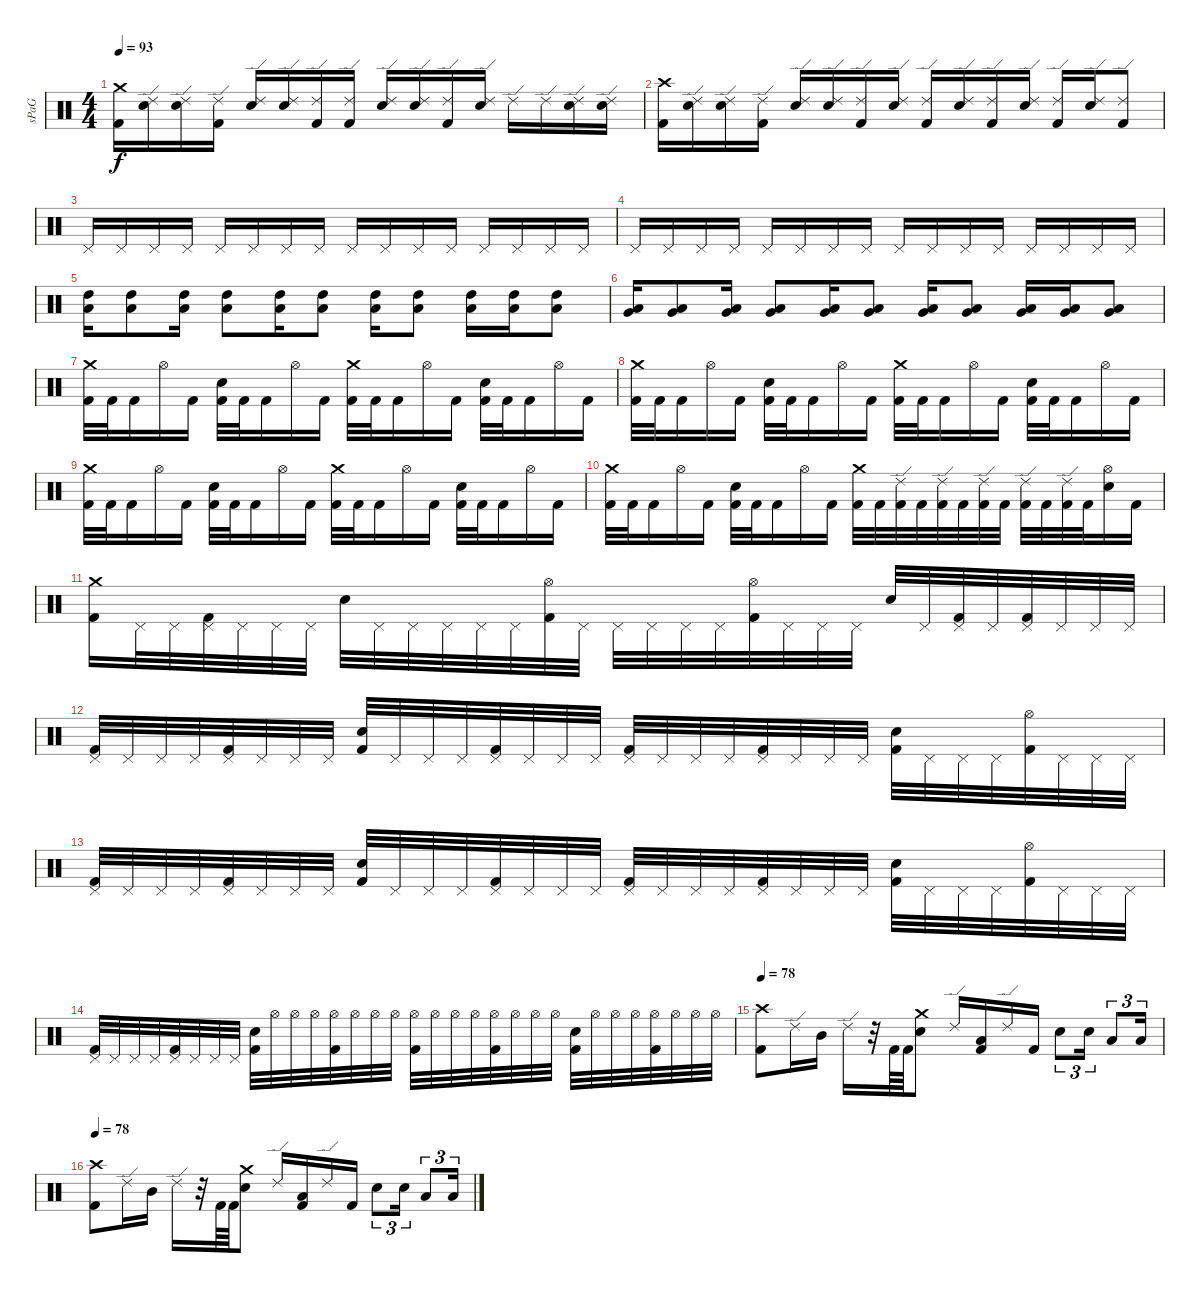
\track ("sPaG" "sPaG") {instrument percussion}
\staff {score}
\articulation defaults
\ts (4 4)
\tempo 93
\clef neutral
\ks c
("Crash medium (hit)" "Kick (hit) 2").16{dy f} ("Ride (edge) 2" "Snare (hit) 2").16 ("Ride (edge) 2" "Snare (hit) 2").16 ("Ride (edge) 2" "Kick (hit) 2").16 ("Ride (edge) 2" "Snare (hit) 2").16 ("Ride (edge) 2" "Snare (hit) 2").16 ("Ride (edge) 2" "Kick (hit) 2").16 ("Ride (edge) 2" "Kick (hit) 2").16 ("Ride (edge) 2" "Snare (hit) 2").16 ("Ride (edge) 2" "Snare (hit) 2").16 ("Ride (edge) 2" "Kick (hit) 2").16 ("Ride (edge) 2" "Snare (hit) 2").16 "Ride (edge) 2".16 "Ride (edge) 2".16 ("Ride (edge) 2" "Snare (hit) 2").16 ("Ride (edge) 2" "Snare (hit) 2").16 |
("Crash high (hit)" "Kick (hit) 2").16 ("Ride (edge) 2" "Snare (hit) 2").16 ("Ride (edge) 2" "Snare (hit) 2").16 ("Ride (edge) 2" "Kick (hit) 2").16 ("Ride (edge) 2" "Snare (hit) 2").16 ("Ride (edge) 2" "Snare (hit) 2").16 ("Ride (edge) 2" "Kick (hit) 2").16 ("Ride (edge) 2" "Snare (hit) 2").16 ("Ride (edge) 2" "Kick (hit) 2").16 ("Ride (edge) 2" "Snare (hit) 2").16 ("Ride (edge) 2" "Kick (hit) 2").16 ("Ride (edge) 2" "Snare (hit) 2").16 ("Ride (edge) 2" "Kick (hit) 2").16 ("Ride (edge) 2" "Snare (hit) 2").16 ("Ride (edge) 2" "Kick (hit) 2").8 |
"Pedal Hi-Hat (hit)".16 "Pedal Hi-Hat (hit)".16 "Pedal Hi-Hat (hit)".16 "Pedal Hi-Hat (hit)".16 "Pedal Hi-Hat (hit)".16 "Pedal Hi-Hat (hit)".16 "Pedal Hi-Hat (hit)".16 "Pedal Hi-Hat (hit)".16 "Pedal Hi-Hat (hit)".16 "Pedal Hi-Hat (hit)".16 "Pedal Hi-Hat (hit)".16 "Pedal Hi-Hat (hit)".16 "Pedal Hi-Hat (hit)".16 "Pedal Hi-Hat (hit)".16 "Pedal Hi-Hat (hit)".16 "Pedal Hi-Hat (hit)".16 |
"Pedal Hi-Hat (hit)".16 "Pedal Hi-Hat (hit)".16 "Pedal Hi-Hat (hit)".16 "Pedal Hi-Hat (hit)".16 "Pedal Hi-Hat (hit)".16 "Pedal Hi-Hat (hit)".16 "Pedal Hi-Hat (hit)".16 "Pedal Hi-Hat (hit)".16 "Pedal Hi-Hat (hit)".16 "Pedal Hi-Hat (hit)".16 "Pedal Hi-Hat (hit)".16 "Pedal Hi-Hat (hit)".16 "Pedal Hi-Hat (hit)".16 "Pedal Hi-Hat (hit)".16 "Pedal Hi-Hat (hit)".16 "Pedal Hi-Hat (hit)".16 |
("High Tom (hit)" "Low Tom (hit)").16 ("High Tom (hit)" "Low Tom (hit)").8 ("High Tom (hit)" "Low Tom (hit)").16 ("High Tom (hit)" "Low Tom (hit)").8 ("High Tom (hit)" "Low Tom (hit)").16 ("High Tom (hit)" "Low Tom (hit)").8 ("High Tom (hit)" "Low Tom (hit)").16 ("High Tom (hit)" "Low Tom (hit)").8 ("High Tom (hit)" "Low Tom (hit)").16 ("High Tom (hit)" "Low Tom (hit)").16 ("High Tom (hit)" "Low Tom (hit)").8 |
("Low Tom (hit)" "Very Low Tom (hit)").16 ("Low Tom (hit)" "Very Low Tom (hit)").8 ("Low Tom (hit)" "Very Low Tom (hit)").16 ("Low Tom (hit)" "Very Low Tom (hit)").8 ("Low Tom (hit)" "Very Low Tom (hit)").16 ("Low Tom (hit)" "Very Low Tom (hit)").8 ("Low Tom (hit)" "Very Low Tom (hit)").16 ("Low Tom (hit)" "Very Low Tom (hit)").8 ("Low Tom (hit)" "Very Low Tom (hit)").16 ("Low Tom (hit)" "Very Low Tom (hit)").16 ("Low Tom (hit)" "Very Low Tom (hit)").8 |
("Crash medium (hit)" "Kick (hit) 2").32 "Kick (hit) 2".32 "Kick (hit) 2".16 "Hi-Hat (open)".16 "Kick (hit) 2".16 ("Snare (hit) 2" "Kick (hit) 2").32 "Kick (hit) 2".32 "Kick (hit) 2".16 "Hi-Hat (open)".16 "Kick (hit) 2".16 ("Crash medium (hit)" "Kick (hit) 2").32 "Kick (hit) 2".32 "Kick (hit) 2".16 "Hi-Hat (open)".16 "Kick (hit) 2".16 ("Snare (hit) 2" "Kick (hit) 2").32 "Kick (hit) 2".32 "Kick (hit) 2".16 "Hi-Hat (open)".16 "Kick (hit) 2".16 |
("Crash medium (hit)" "Kick (hit) 2").32 "Kick (hit) 2".32 "Kick (hit) 2".16 "Hi-Hat (open)".16 "Kick (hit) 2".16 ("Snare (hit) 2" "Kick (hit) 2").32 "Kick (hit) 2".32 "Kick (hit) 2".16 "Hi-Hat (open)".16 "Kick (hit) 2".16 ("Crash medium (hit)" "Kick (hit) 2").32 "Kick (hit) 2".32 "Kick (hit) 2".16 "Hi-Hat (open)".16 "Kick (hit) 2".16 ("Snare (hit) 2" "Kick (hit) 2").32 "Kick (hit) 2".32 "Kick (hit) 2".16 "Hi-Hat (open)".16 "Kick (hit) 2".16 |
("Crash medium (hit)" "Kick (hit) 2").32 "Kick (hit) 2".32 "Kick (hit) 2".16 "Hi-Hat (open)".16 "Kick (hit) 2".16 ("Snare (hit) 2" "Kick (hit) 2").32 "Kick (hit) 2".32 "Kick (hit) 2".16 "Hi-Hat (open)".16 "Kick (hit) 2".16 ("Crash medium (hit)" "Kick (hit) 2").32 "Kick (hit) 2".32 "Kick (hit) 2".16 "Hi-Hat (open)".16 "Kick (hit) 2".16 ("Snare (hit) 2" "Kick (hit) 2").32 "Kick (hit) 2".32 "Kick (hit) 2".16 "Hi-Hat (open)".16 "Kick (hit) 2".16 |
("Crash medium (hit)" "Kick (hit) 2").32 "Kick (hit) 2".32 "Kick (hit) 2".16 "Hi-Hat (open)".16 "Kick (hit) 2".16 ("Snare (hit) 2" "Kick (hit) 2").32 "Kick (hit) 2".32 "Kick (hit) 2".16 "Hi-Hat (open)".16 "Kick (hit) 2".16 ("Crash medium (hit)" "Kick (hit) 2").32 "Kick (hit) 2".32 ("Ride (edge) 2" "Kick (hit) 2").32 "Kick (hit) 2".32 ("Ride (edge) 2" "Kick (hit) 2").32 "Kick (hit) 2".32 ("Ride (edge) 2" "Kick (hit) 2").32 "Kick (hit) 2".32 ("Ride (edge) 2" "Kick (hit) 2").32 "Kick (hit) 2".32 ("Ride (edge) 2" "Kick (hit) 2").32 "Kick (hit) 2".32 ("Hi-Hat (open)" "Snare (hit) 2").16 "Kick (hit) 2".16 |
("Crash medium (hit)" "Kick (hit) 2").16 "Pedal Hi-Hat (hit)".32 "Pedal Hi-Hat (hit)".32 ("Pedal Hi-Hat (hit)" "Kick (hit) 2").32 "Pedal Hi-Hat (hit)".32 "Pedal Hi-Hat (hit)".32 "Pedal Hi-Hat (hit)".32 "Snare (hit) 2".32 "Pedal Hi-Hat (hit)".32 "Pedal Hi-Hat (hit)".32 "Pedal Hi-Hat (hit)".32 "Pedal Hi-Hat (hit)".32 "Pedal Hi-Hat (hit)".32 ("Hi-Hat (open)" "Kick (hit) 2").32 "Pedal Hi-Hat (hit)".32 "Pedal Hi-Hat (hit)".32 "Pedal Hi-Hat (hit)".32 "Pedal Hi-Hat (hit)".32 "Pedal Hi-Hat (hit)".32 ("Hi-Hat (open)" "Kick (hit) 2").32 "Pedal Hi-Hat (hit)".32 "Pedal Hi-Hat (hit)".32 "Pedal Hi-Hat (hit)".32 "Snare (hit) 2".32 "Pedal Hi-Hat (hit)".32 ("Pedal Hi-Hat (hit)" "Kick (hit) 2").32 "Pedal Hi-Hat (hit)".32 ("Pedal Hi-Hat (hit)" "Kick (hit) 2").32 "Pedal Hi-Hat (hit)".32 "Pedal Hi-Hat (hit)".32 "Pedal Hi-Hat (hit)".32 |
("Pedal Hi-Hat (hit)" "Kick (hit) 2").32 "Pedal Hi-Hat (hit)".32 "Pedal Hi-Hat (hit)".32 "Pedal Hi-Hat (hit)".32 ("Pedal Hi-Hat (hit)" "Kick (hit) 2").32 "Pedal Hi-Hat (hit)".32 "Pedal Hi-Hat (hit)".32 "Pedal Hi-Hat (hit)".32 ("Snare (hit) 2" "Kick (hit) 2").32 "Pedal Hi-Hat (hit)".32 "Pedal Hi-Hat (hit)".32 "Pedal Hi-Hat (hit)".32 ("Pedal Hi-Hat (hit)" "Kick (hit) 2").32 "Pedal Hi-Hat (hit)".32 "Pedal Hi-Hat (hit)".32 "Pedal Hi-Hat (hit)".32 ("Pedal Hi-Hat (hit)" "Kick (hit) 2").32 "Pedal Hi-Hat (hit)".32 "Pedal Hi-Hat (hit)".32 "Pedal Hi-Hat (hit)".32 ("Pedal Hi-Hat (hit)" "Kick (hit) 2").32 "Pedal Hi-Hat (hit)".32 "Pedal Hi-Hat (hit)".32 "Pedal Hi-Hat (hit)".32 ("Snare (hit) 2" "Kick (hit) 2").32 "Pedal Hi-Hat (hit)".32 "Pedal Hi-Hat (hit)".32 "Pedal Hi-Hat (hit)".32 ("Hi-Hat (open)" "Kick (hit) 2").32 "Pedal Hi-Hat (hit)".32 "Pedal Hi-Hat (hit)".32 "Pedal Hi-Hat (hit)".32 |
("Pedal Hi-Hat (hit)" "Kick (hit) 2").32 "Pedal Hi-Hat (hit)".32 "Pedal Hi-Hat (hit)".32 "Pedal Hi-Hat (hit)".32 ("Pedal Hi-Hat (hit)" "Kick (hit) 2").32 "Pedal Hi-Hat (hit)".32 "Pedal Hi-Hat (hit)".32 "Pedal Hi-Hat (hit)".32 ("Snare (hit) 2" "Kick (hit) 2").32 "Pedal Hi-Hat (hit)".32 "Pedal Hi-Hat (hit)".32 "Pedal Hi-Hat (hit)".32 ("Pedal Hi-Hat (hit)" "Kick (hit) 2").32 "Pedal Hi-Hat (hit)".32 "Pedal Hi-Hat (hit)".32 "Pedal Hi-Hat (hit)".32 ("Pedal Hi-Hat (hit)" "Kick (hit) 2").32 "Pedal Hi-Hat (hit)".32 "Pedal Hi-Hat (hit)".32 "Pedal Hi-Hat (hit)".32 ("Pedal Hi-Hat (hit)" "Kick (hit) 2").32 "Pedal Hi-Hat (hit)".32 "Pedal Hi-Hat (hit)".32 "Pedal Hi-Hat (hit)".32 ("Snare (hit) 2" "Kick (hit) 2").32 "Pedal Hi-Hat (hit)".32 "Pedal Hi-Hat (hit)".32 "Pedal Hi-Hat (hit)".32 ("Hi-Hat (open)" "Kick (hit) 2").32 "Pedal Hi-Hat (hit)".32 "Pedal Hi-Hat (hit)".32 "Pedal Hi-Hat (hit)".32 |
("Pedal Hi-Hat (hit)" "Kick (hit) 2").32 "Pedal Hi-Hat (hit)".32 "Pedal Hi-Hat (hit)".32 "Pedal Hi-Hat (hit)".32 ("Pedal Hi-Hat (hit)" "Kick (hit) 2").32 "Pedal Hi-Hat (hit)".32 "Pedal Hi-Hat (hit)".32 "Pedal Hi-Hat (hit)".32 ("Snare (hit) 2" "Kick (hit) 2").32 "Hi-Hat (open)".32 "Hi-Hat (open)".32 "Hi-Hat (open)".32 ("Hi-Hat (open)" "Kick (hit) 2").32 "Hi-Hat (open)".32 "Hi-Hat (open)".32 "Hi-Hat (open)".32 ("Hi-Hat (open)" "Kick (hit) 2").32 "Hi-Hat (open)".32 "Hi-Hat (open)".32 "Hi-Hat (open)".32 ("Hi-Hat (open)" "Kick (hit) 2").32 "Hi-Hat (open)".32 "Hi-Hat (open)".32 "Hi-Hat (open)".32 ("Snare (hit) 2" "Kick (hit) 2").32 "Hi-Hat (open)".32 "Hi-Hat (open)".32 "Hi-Hat (open)".32 ("Hi-Hat (open)" "Kick (hit) 2").32 "Hi-Hat (open)".32 "Hi-Hat (open)".32 "Hi-Hat (open)".32 |
\tempo 78
("Crash high (hit)" "Kick (hit) 2").8 "Ride (edge) 2".16 "Mid Tom (hit)".16 "Ride (edge) 2".16 r.32 "Kick (hit) 2".64 "Kick (hit) 2".64 ("Crash medium (hit)" "Snare (hit) 2").8 "Ride (edge) 2".16 ("Low Tom (hit)" "Kick (hit) 2").16 "Ride (edge) 2".16 "Kick (hit) 2".16 "Snare (hit) 2".8{tu (3 2)} "Snare (hit) 2".16{tu (3 2)} "Low Tom (hit)".8{tu (3 2)} "Low Tom (hit)".16{tu (3 2)} |
\tempo 78
("Crash high (hit)" "Kick (hit) 2").8 "Ride (edge) 2".16 "Mid Tom (hit)".16 "Ride (edge) 2".16 r.32 "Kick (hit) 2".64 "Kick (hit) 2".64 ("Crash medium (hit)" "Snare (hit) 2").8 "Ride (edge) 2".16 ("Low Tom (hit)" "Kick (hit) 2").16 "Ride (edge) 2".16 "Kick (hit) 2".16 "Snare (hit) 2".8{tu (3 2)} "Snare (hit) 2".16{tu (3 2)} "Low Tom (hit)".8{tu (3 2)} "Low Tom (hit)".16{tu (3 2)}
